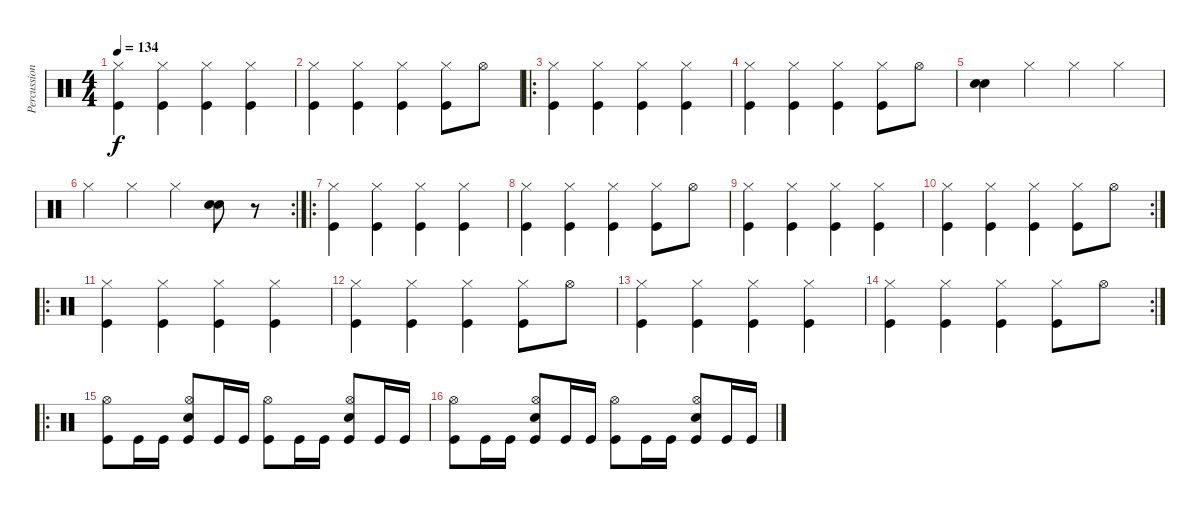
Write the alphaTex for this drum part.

\track ("Percussion" "Percussion") {instrument percussion}
\staff {score}
\articulation defaults
\ts (4 4)
\tempo 134
\clef neutral
\ks c
("Kick (hit)" "Hi-Hat (closed)").4{dy f} ("Kick (hit)" "Hi-Hat (closed)").4 ("Kick (hit)" "Hi-Hat (closed)").4 ("Kick (hit)" "Hi-Hat (closed)").4 |
("Kick (hit)" "Hi-Hat (closed)").4 ("Kick (hit)" "Hi-Hat (closed)").4 ("Kick (hit)" "Hi-Hat (closed)").4 ("Kick (hit)" "Hi-Hat (closed)").8 "Hi-Hat (open)".8 |
\ro
("Kick (hit)" "Hi-Hat (closed)").4 ("Kick (hit)" "Hi-Hat (closed)").4 ("Kick (hit)" "Hi-Hat (closed)").4 ("Kick (hit)" "Hi-Hat (closed)").4 |
("Kick (hit)" "Hi-Hat (closed)").4 ("Kick (hit)" "Hi-Hat (closed)").4 ("Kick (hit)" "Hi-Hat (closed)").4 ("Kick (hit)" "Hi-Hat (closed)").8 "Hi-Hat (open)".8 |
("Snare (hit) 2" "Snare (hit) 2").4 "Hi-Hat (closed)".4 "Hi-Hat (closed)".4 "Hi-Hat (closed)".4 |
\rc 2 "Hi-Hat (closed)".4 "Hi-Hat (closed)".4 "Hi-Hat (closed)".4
("Snare (hit) 2" "Snare (hit) 2").8 r.8 |
\ro
("Kick (hit)" "Hi-Hat (closed)").4 ("Kick (hit)" "Hi-Hat (closed)").4 ("Kick (hit)" "Hi-Hat (closed)").4 ("Kick (hit)" "Hi-Hat (closed)").4 |
("Kick (hit)" "Hi-Hat (closed)").4 ("Kick (hit)" "Hi-Hat (closed)").4 ("Kick (hit)" "Hi-Hat (closed)").4 ("Kick (hit)" "Hi-Hat (closed)").8 "Hi-Hat (open)".8 |
("Kick (hit)" "Hi-Hat (closed)").4 ("Kick (hit)" "Hi-Hat (closed)").4 ("Kick (hit)" "Hi-Hat (closed)").4 ("Kick (hit)" "Hi-Hat (closed)").4 |
\rc 2
("Kick (hit)" "Hi-Hat (closed)").4 ("Kick (hit)" "Hi-Hat (closed)").4 ("Kick (hit)" "Hi-Hat (closed)").4 ("Kick (hit)" "Hi-Hat (closed)").8 "Hi-Hat (open)".8 |
\ro
("Kick (hit)" "Hi-Hat (closed)").4 ("Kick (hit)" "Hi-Hat (closed)").4 ("Kick (hit)" "Hi-Hat (closed)").4 ("Kick (hit)" "Hi-Hat (closed)").4 |
("Kick (hit)" "Hi-Hat (closed)").4 ("Kick (hit)" "Hi-Hat (closed)").4 ("Kick (hit)" "Hi-Hat (closed)").4 ("Kick (hit)" "Hi-Hat (closed)").8 "Hi-Hat (open)".8 |
("Kick (hit)" "Hi-Hat (closed)").4 ("Kick (hit)" "Hi-Hat (closed)").4 ("Kick (hit)" "Hi-Hat (closed)").4 ("Kick (hit)" "Hi-Hat (closed)").4 |
\rc 2
("Kick (hit)" "Hi-Hat (closed)").4 ("Kick (hit)" "Hi-Hat (closed)").4 ("Kick (hit)" "Hi-Hat (closed)").4 ("Kick (hit)" "Hi-Hat (closed)").8 "Hi-Hat (open)".8 |
\ro
("Hi-Hat (open)" "Kick (hit)").8 "Kick (hit)".16 "Kick (hit)".16 ("Hi-Hat (open)" "Kick (hit)" "Snare (hit) 2").8 "Kick (hit)".16 "Kick (hit)".16 ("Hi-Hat (open)" "Kick (hit)").8 "Kick (hit)".16 "Kick (hit)".16 ("Hi-Hat (open)" "Kick (hit)" "Snare (hit) 2").8 "Kick (hit)".16 "Kick (hit)".16 |
("Hi-Hat (open)" "Kick (hit)").8 "Kick (hit)".16 "Kick (hit)".16 ("Hi-Hat (open)" "Kick (hit)" "Snare (hit) 2").8 "Kick (hit)".16 "Kick (hit)".16 ("Hi-Hat (open)" "Kick (hit)").8 "Kick (hit)".16 "Kick (hit)".16 ("Hi-Hat (open)" "Kick (hit)" "Snare (hit) 2").8 "Kick (hit)".16 "Kick (hit)".16
